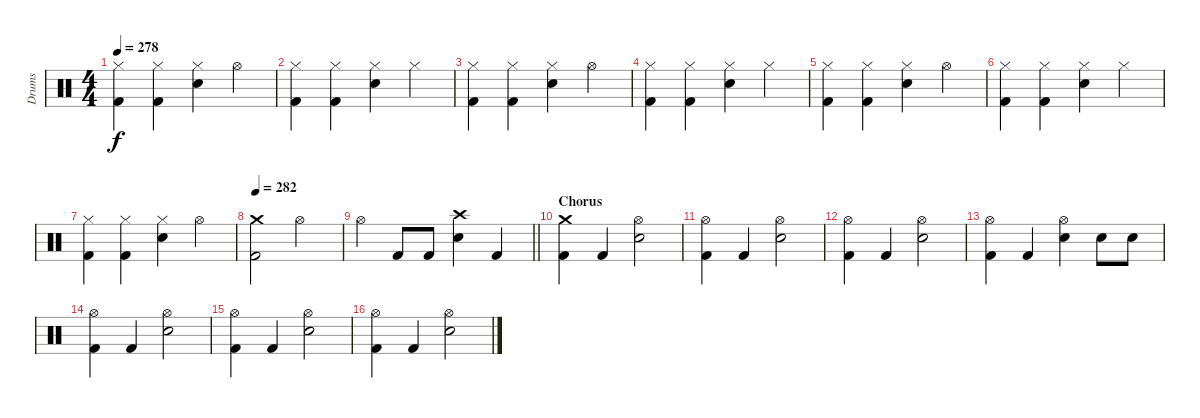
\track ("Drums" "Drums") {instrument percussion}
\staff {score}
\articulation defaults
\ts (4 4)
\tempo 278
\clef neutral
\ks c
("Hi-Hat (closed)" "Kick (hit) 2").4{dy f} ("Hi-Hat (closed)" "Kick (hit) 2").4 ("Hi-Hat (closed)" "Electric Snare (hit)").4 "Hi-Hat (open)".4 |
("Hi-Hat (closed)" "Kick (hit) 2").4 ("Hi-Hat (closed)" "Kick (hit) 2").4 ("Hi-Hat (closed)" "Electric Snare (hit)").4 "Hi-Hat (closed)".4 |
("Hi-Hat (closed)" "Kick (hit) 2").4 ("Hi-Hat (closed)" "Kick (hit) 2").4 ("Hi-Hat (closed)" "Electric Snare (hit)").4 "Hi-Hat (open)".4 |
("Hi-Hat (closed)" "Kick (hit) 2").4 ("Hi-Hat (closed)" "Kick (hit) 2").4 ("Hi-Hat (closed)" "Electric Snare (hit)").4 "Hi-Hat (closed)".4 |
("Hi-Hat (closed)" "Kick (hit) 2").4 ("Hi-Hat (closed)" "Kick (hit) 2").4 ("Hi-Hat (closed)" "Electric Snare (hit)").4 "Hi-Hat (open)".4 |
("Hi-Hat (closed)" "Kick (hit) 2").4 ("Hi-Hat (closed)" "Kick (hit) 2").4 ("Hi-Hat (closed)" "Electric Snare (hit)").4 "Hi-Hat (closed)".4 |
("Hi-Hat (closed)" "Kick (hit) 2").4 ("Hi-Hat (closed)" "Kick (hit) 2").4 ("Hi-Hat (closed)" "Electric Snare (hit)").4 "Hi-Hat (open)".4 |
\tempo 282
("Crash medium (hit)" "Kick (hit) 2").2 "Hi-Hat (open)".2 |
\barLineRight lightlight "Hi-Hat (open)".4 "Kick (hit) 2".8 "Kick (hit) 2".8
("Crash high (hit)" "Electric Snare (hit)").4 "Kick (hit) 2".4 |
\section ("" "Chorus")
("Crash medium (hit)" "Kick (hit) 2").4 "Kick (hit) 2".4 ("Hi-Hat (open)" "Electric Snare (hit)").2 |
("Hi-Hat (open)" "Kick (hit) 2").4 "Kick (hit) 2".4 ("Hi-Hat (open)" "Electric Snare (hit)").2 |
("Hi-Hat (open)" "Kick (hit) 2").4 "Kick (hit) 2".4 ("Hi-Hat (open)" "Electric Snare (hit)").2 |
("Hi-Hat (open)" "Kick (hit) 2").4 "Kick (hit) 2".4 ("Hi-Hat (open)" "Electric Snare (hit)").4 "Electric Snare (hit)".8 "Electric Snare (hit)".8 |
("Hi-Hat (open)" "Kick (hit) 2").4 "Kick (hit) 2".4 ("Hi-Hat (open)" "Electric Snare (hit)").2 |
("Hi-Hat (open)" "Kick (hit) 2").4 "Kick (hit) 2".4 ("Hi-Hat (open)" "Electric Snare (hit)").2 |
("Hi-Hat (open)" "Kick (hit) 2").4 "Kick (hit) 2".4 ("Hi-Hat (open)" "Electric Snare (hit)").2
